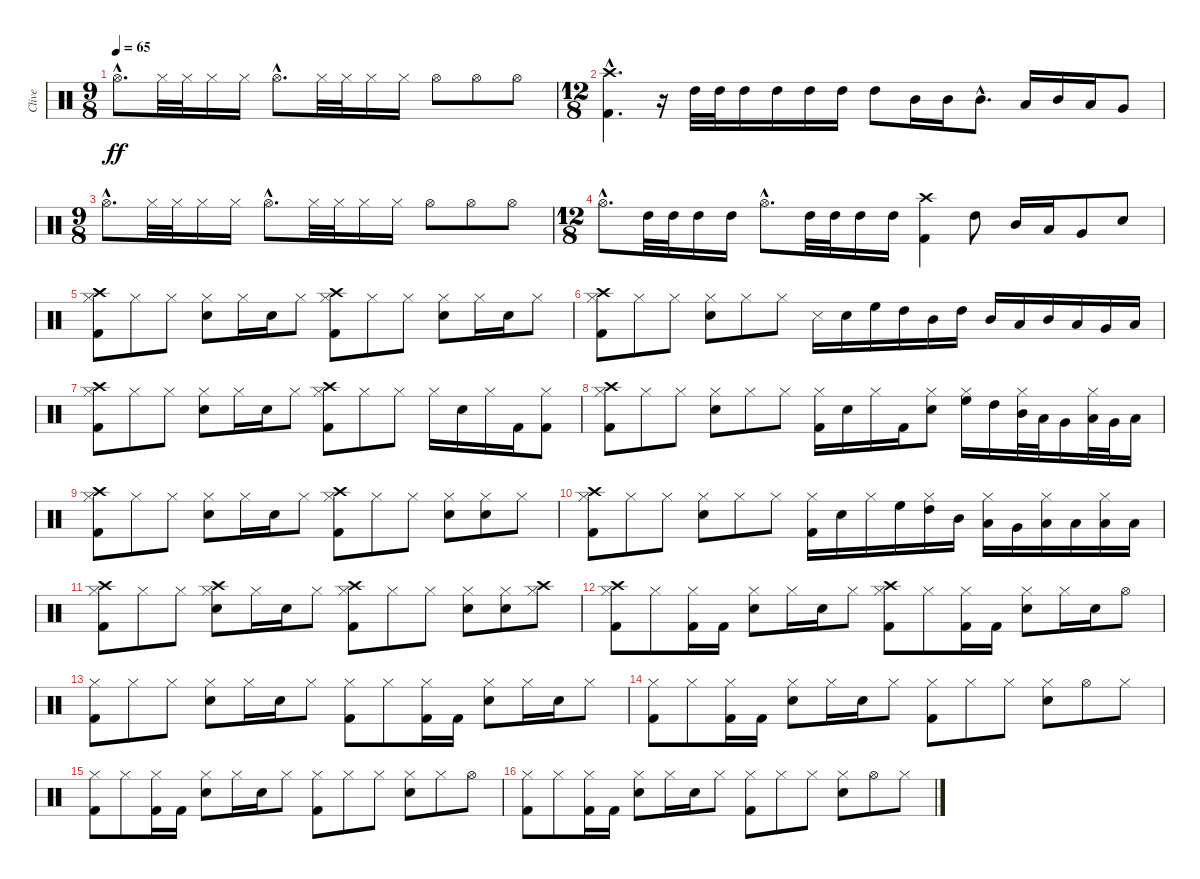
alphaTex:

\track ("Clive" "Clive") {instrument percussion}
\staff {score}
\articulation defaults
\ts (9 8)
\tempo 65
\clef neutral
\ks c "Hi-Hat (open)"{hac}.8{d dy ff} "Hi-Hat (closed)".32{volume 12} "Hi-Hat (closed)".32 "Hi-Hat (closed)".16 "Hi-Hat (closed)".16 "Hi-Hat (open)"{hac}.8{d} "Hi-Hat (closed)".32 "Hi-Hat (closed)".32 "Hi-Hat (closed)".16 "Hi-Hat (closed)".16 "Hi-Hat (open)".8 "Hi-Hat (open)".8 "Hi-Hat (open)".8
|
\ts (12 8)
("Kick (hit) 2"{hac} "Crash high (hit)"{hac}).4{d} r.16 "High Tom (hit)".32{volume 4} "High Tom (hit)".32{volume 6} "High Tom (hit)".16{volume 8} "High Tom (hit)".16{volume 12} "High Tom (hit)".16{volume 16} "High Tom (hit)".16 "High Tom (hit)".8 "Mid Tom (hit)".16 "Mid Tom (hit)".16 "Mid Tom (hit)"{hac}.8{d} "Low Tom (hit)".16 "Mid Tom (hit)".16 "Low Tom (hit)".16 "Very Low Tom (hit)".8 |
\ts (9 8)
"Hi-Hat (open)"{hac}.8{d} "Hi-Hat (closed)".32 "Hi-Hat (closed)".32 "Hi-Hat (closed)".16 "Hi-Hat (closed)".16 "Hi-Hat (open)"{hac}.8{d} "Hi-Hat (closed)".32 "Hi-Hat (closed)".32 "Hi-Hat (closed)".16 "Hi-Hat (closed)".16 "Hi-Hat (open)".8 "Hi-Hat (open)".8 "Hi-Hat (open)".8 |
\ts (12 8)
"Hi-Hat (open)"{hac}.8{d} "High Tom (hit)".32{volume 0} "High Tom (hit)".32{volume 4} "High Tom (hit)".16{volume 8} "High Tom (hit)".16{volume 16} "Hi-Hat (open)"{hac}.8{d} "High Tom (hit)".32{volume 0} "High Tom (hit)".32{volume 4} "High Tom (hit)".16{volume 8} "High Tom (hit)".16{volume 16} ("Kick (hit) 2" "Crash high (hit)").4 "High Tom (hit)".8 "Mid Tom (hit)".16 "Low Tom (hit)".16 "Very Low Tom (hit)".8 "Snare (hit) 2".8 |
("Kick (hit) 2" "Hi-Hat (closed)" "Crash high (hit)").8 "Hi-Hat (closed)".8{volume 12} "Hi-Hat (closed)".8 ("Snare (hit) 2" "Hi-Hat (closed)").8 "Hi-Hat (closed)".16 "Snare (hit) 2".16 "Hi-Hat (closed)".8 ("Kick (hit) 2" "Hi-Hat (closed)" "Crash high (hit)").8 "Hi-Hat (closed)".8 "Hi-Hat (closed)".8 ("Snare (hit) 2" "Hi-Hat (closed)").8 "Hi-Hat (closed)".16 "Snare (hit) 2".16 "Hi-Hat (closed)".8 |
("Kick (hit) 2" "Hi-Hat (closed)" "Crash high (hit)").8 "Hi-Hat (closed)".8 "Hi-Hat (closed)".8 ("Snare (hit) 2" "Hi-Hat (closed)").8 "Hi-Hat (closed)".8 "Hi-Hat (closed)".8 "Snare (side stick) 3".16 "Snare (hit) 2".16 "High Floor Tom (hit)".16 "High Tom (hit)".16 "Mid Tom (hit)".16 "High Tom (hit)".16 "Mid Tom (hit)".16 "Low Tom (hit)".16 "Mid Tom (hit)".16 "Low Tom (hit)".16 "Very Low Tom (hit)".16 "Low Floor Tom (hit)".16 |
("Kick (hit) 2" "Hi-Hat (closed)" "Crash high (hit)").8 "Hi-Hat (closed)".8 "Hi-Hat (closed)".8 ("Snare (hit) 2" "Hi-Hat (closed)").8 "Hi-Hat (closed)".16 "Snare (hit) 2".16 "Hi-Hat (closed)".8 ("Kick (hit) 2" "Hi-Hat (closed)" "Crash high (hit)").8 "Hi-Hat (closed)".8 "Hi-Hat (closed)".8 "Hi-Hat (closed)".16 "Snare (hit) 2".16 "Hi-Hat (closed)".16 "Kick (hit) 2".16 ("Kick (hit) 2" "Hi-Hat (closed)").8 |
("Kick (hit) 2" "Hi-Hat (closed)" "Crash high (hit)").8 "Hi-Hat (closed)".8 "Hi-Hat (closed)".8 ("Snare (hit) 2" "Hi-Hat (closed)").8 "Hi-Hat (closed)".8 "Hi-Hat (closed)".8 ("Kick (hit) 2" "Hi-Hat (closed)").16 "Snare (hit) 2".16 "Hi-Hat (closed)".16 "Kick (hit) 2".16 ("Snare (hit) 2" "Hi-Hat (closed)").8 ("Hi-Hat (closed)" "High Floor Tom (hit)").16 "High Tom (hit)".16 ("Hi-Hat (closed)" "Mid Tom (hit)").32 "Low Tom (hit)".32 "Very Low Tom (hit)".16 ("Hi-Hat (closed)" "Low Tom (hit)").32 "Very Low Tom (hit)".32 "Low Floor Tom (hit)".16 |
("Kick (hit) 2" "Hi-Hat (closed)" "Crash high (hit)").8 "Hi-Hat (closed)".8 "Hi-Hat (closed)".8 ("Snare (hit) 2" "Hi-Hat (closed)").8 "Hi-Hat (closed)".16 "Snare (hit) 2".16 "Hi-Hat (closed)".8 ("Kick (hit) 2" "Hi-Hat (closed)" "Crash high (hit)").8 "Hi-Hat (closed)".8 "Hi-Hat (closed)".8 ("Snare (hit) 2" "Hi-Hat (closed)").8 ("Snare (hit) 2" "Hi-Hat (closed)").8 "Hi-Hat (closed)".8 |
("Kick (hit) 2" "Hi-Hat (closed)" "Crash high (hit)").8 "Hi-Hat (closed)".8 "Hi-Hat (closed)".8 ("Snare (hit) 2" "Hi-Hat (closed)").8 "Hi-Hat (closed)".8 "Hi-Hat (closed)".8 ("Kick (hit) 2" "Hi-Hat (closed)").16 "Snare (hit) 2".16 "Hi-Hat (closed)".16 "High Floor Tom (hit)".16 ("Hi-Hat (closed)" "High Tom (hit)").16 "Mid Tom (hit)".16 ("Hi-Hat (closed)" "Low Tom (hit)").16 "Very Low Tom (hit)".16 ("Low Floor Tom (hit)" "Hi-Hat (closed)").16 "Low Floor Tom (hit)".16 ("Low Floor Tom (hit)" "Hi-Hat (closed)").16 "Low Floor Tom (hit)".16 |
("Kick (hit) 2" "Hi-Hat (closed)" "Crash high (hit)").8 "Hi-Hat (closed)".8 "Hi-Hat (closed)".8 ("Snare (hit) 2" "Hi-Hat (closed)" "Crash high (hit)").8 "Hi-Hat (closed)".16 "Snare (hit) 2".16 "Hi-Hat (closed)".8 ("Kick (hit) 2" "Hi-Hat (closed)" "Crash high (hit)").8 "Hi-Hat (closed)".8 "Hi-Hat (closed)".8 ("Snare (hit) 2" "Hi-Hat (closed)").8 ("Snare (hit) 2" "Hi-Hat (closed)").8 ("Hi-Hat (closed)" "Crash high (hit)").8 |
("Kick (hit) 2" "Hi-Hat (closed)" "Crash high (hit)").8 "Hi-Hat (closed)".8 ("Kick (hit) 2" "Hi-Hat (closed)").16 "Kick (hit) 2".16 ("Snare (hit) 2" "Hi-Hat (closed)").8 "Hi-Hat (closed)".16 "Snare (hit) 2".16 "Hi-Hat (closed)".8 ("Kick (hit) 2" "Hi-Hat (closed)" "Crash high (hit)").8 "Hi-Hat (closed)".8 ("Kick (hit) 2" "Hi-Hat (closed)").16 "Kick (hit) 2".16 ("Snare (hit) 2" "Hi-Hat (closed)").8 "Hi-Hat (closed)".16 "Snare (hit) 2".16 "Hi-Hat (open)".8 |
("Kick (hit) 2" "Hi-Hat (closed)").8 "Hi-Hat (closed)".8 "Hi-Hat (closed)".8 ("Snare (hit) 2" "Hi-Hat (closed)").8 "Hi-Hat (closed)".16 "Snare (hit) 2".16 "Hi-Hat (closed)".8 ("Kick (hit) 2" "Hi-Hat (closed)").8 "Hi-Hat (closed)".8 ("Kick (hit) 2" "Hi-Hat (closed)").16 "Kick (hit) 2".16 ("Snare (hit) 2" "Hi-Hat (closed)").8 "Hi-Hat (closed)".16 "Snare (hit) 2".16 "Hi-Hat (closed)".8 |
("Kick (hit) 2" "Hi-Hat (closed)").8 "Hi-Hat (closed)".8 ("Kick (hit) 2" "Hi-Hat (closed)").16 "Kick (hit) 2".16 ("Snare (hit) 2" "Hi-Hat (closed)").8 "Hi-Hat (closed)".16 "Snare (hit) 2".16 "Hi-Hat (closed)".8 ("Kick (hit) 2" "Hi-Hat (closed)").8 "Hi-Hat (closed)".8 "Hi-Hat (closed)".8 ("Snare (hit) 2" "Hi-Hat (closed)").8 "Hi-Hat (open)".8 "Hi-Hat (closed)".8 |
("Kick (hit) 2" "Hi-Hat (closed)").8 "Hi-Hat (closed)".8 ("Kick (hit) 2" "Hi-Hat (closed)").16 "Kick (hit) 2".16 ("Snare (hit) 2" "Hi-Hat (closed)").8 "Hi-Hat (closed)".16 "Snare (hit) 2".16 "Hi-Hat (closed)".8 ("Kick (hit) 2" "Hi-Hat (closed)").8 "Hi-Hat (closed)".8 "Hi-Hat (closed)".8 ("Snare (hit) 2" "Hi-Hat (closed)").8 "Hi-Hat (closed)".8 "Hi-Hat (open)".8 |
("Kick (hit) 2" "Hi-Hat (closed)").8 "Hi-Hat (closed)".8 ("Kick (hit) 2" "Hi-Hat (closed)").16 "Kick (hit) 2".16 ("Snare (hit) 2" "Hi-Hat (closed)").8 "Hi-Hat (closed)".16 "Snare (hit) 2".16 "Hi-Hat (closed)".8 ("Kick (hit) 2" "Hi-Hat (closed)").8 "Hi-Hat (closed)".8 "Hi-Hat (closed)".8 ("Snare (hit) 2" "Hi-Hat (closed)").8 "Hi-Hat (open)".8 "Hi-Hat (closed)".8
